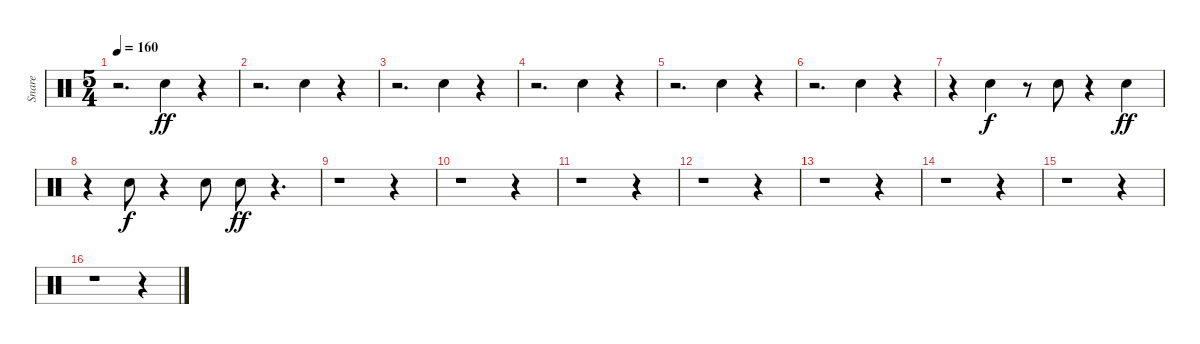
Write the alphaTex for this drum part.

\track ("Snare" "Snare") {instrument percussion}
\staff {score}
\articulation defaults
\ts (5 4)
\tempo 160
\clef neutral
\ks c
r.2{d dy ff} "Electric Snare (hit)".4 r.4 |
r.2{d} "Electric Snare (hit)".4 r.4 |
r.2{d} "Electric Snare (hit)".4 r.4 |
r.2{d} "Electric Snare (hit)".4 r.4 |
r.2{d} "Electric Snare (hit)".4 r.4 |
r.2{d} "Electric Snare (hit)".4 r.4 |
r.4 "Snare (hit) 2".4{dy f} r.8 "Electric Snare (hit)".8 r.4 "Snare (hit) 2".4{dy ff} |
r.4 "Electric Snare (hit)".8{dy f} r.4 "Electric Snare (hit)".8 "Electric Snare (hit)".8{dy ff} r.4{d} |
r.1 r.4 |
r.1 r.4 |
r.1 r.4 |
r.1 r.4 |
r.1 r.4 |
r.1 r.4 |
r.1 r.4 |
r.1 r.4
